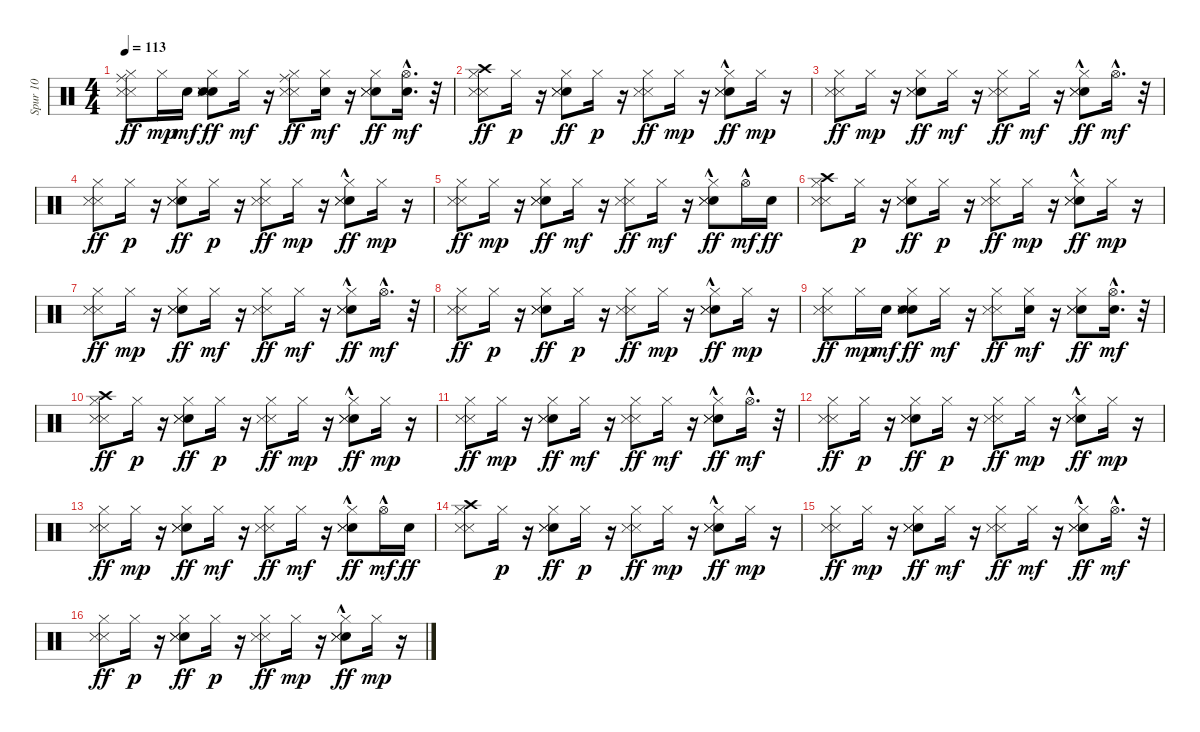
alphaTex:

\track ("Spur 10" "Spur 10") {instrument percussion}
\staff {score}
\articulation defaults
\ts (4 4)
\tempo 113
\clef neutral
\ks c
("Hi-Hat (closed)" "Ride (middle)" "Snare (side stick) 3" "Snare (side stick) 3").8{dy ff} "Hi-Hat (closed)".16{dy mp} "Metronome (bell)".16{dy mf} ("Hi-Hat (closed)" "Metronome (bell)" "Metronome (bell)" "Snare (side stick) 3" "Snare (side stick) 3").8{dy ff} "Hi-Hat (closed)".16{dy mf} r.16 ("Hi-Hat (closed)" "Ride (middle)" "Snare (side stick) 3" "Snare (side stick) 3").8{dy ff} ("Metronome (bell)" "Hi-Hat (closed)").16{dy mf} r.16 ("Metronome (bell)" "Snare (side stick) 3" "Snare (side stick) 3" "Hi-Hat (closed)").8{dy ff} ("Metronome (bell)" "Hi-Hat (open)"{hac}).16{d dy mf} r.32 |
("Crash high (hit)" "Hi-Hat (closed)" "Snare (side stick) 3" "Snare (side stick) 3").8{dy ff} "Hi-Hat (closed)".16{dy p} r.16 ("Hi-Hat (closed)" "Metronome (bell)" "Snare (side stick) 3" "Snare (side stick) 3").8{dy ff} "Hi-Hat (closed)".16{dy p} r.16 ("Hi-Hat (closed)" "Snare (side stick) 3" "Snare (side stick) 3").8{dy ff} "Hi-Hat (closed)".16{dy mp} r.16 ("Hi-Hat (closed)" "Metronome (bell)"{hac} "Snare (side stick) 3" "Snare (side stick) 3").8{dy ff} "Hi-Hat (closed)".16{dy mp} r.16 |
("Hi-Hat (closed)" "Snare (side stick) 3" "Snare (side stick) 3").8{dy ff} "Hi-Hat (closed)".16{dy mp} r.16 ("Hi-Hat (closed)" "Metronome (bell)" "Snare (side stick) 3" "Snare (side stick) 3").8{dy ff} "Hi-Hat (closed)".16{dy mf} r.16 ("Hi-Hat (closed)" "Snare (side stick) 3" "Snare (side stick) 3").8{dy ff} "Hi-Hat (closed)".16{dy mf} r.16 ("Metronome (bell)"{hac} "Snare (side stick) 3" "Snare (side stick) 3" "Hi-Hat (closed)").8{dy ff} "Hi-Hat (open)"{hac}.16{d dy mf} r.32 |
("Hi-Hat (closed)" "Snare (side stick) 3" "Snare (side stick) 3").8{dy ff} "Hi-Hat (closed)".16{dy p} r.16 ("Hi-Hat (closed)" "Metronome (bell)" "Snare (side stick) 3" "Snare (side stick) 3").8{dy ff} "Hi-Hat (closed)".16{dy p} r.16 ("Hi-Hat (closed)" "Snare (side stick) 3" "Snare (side stick) 3").8{dy ff} "Hi-Hat (closed)".16{dy mp} r.16 ("Hi-Hat (closed)" "Metronome (bell)"{hac} "Snare (side stick) 3" "Snare (side stick) 3").8{dy ff} "Hi-Hat (closed)".16{dy mp} r.16 |
("Hi-Hat (closed)" "Snare (side stick) 3" "Snare (side stick) 3").8{dy ff} "Hi-Hat (closed)".16{dy mp} r.16 ("Hi-Hat (closed)" "Metronome (bell)" "Snare (side stick) 3" "Snare (side stick) 3").8{dy ff} "Hi-Hat (closed)".16{dy mf} r.16 ("Hi-Hat (closed)" "Snare (side stick) 3" "Snare (side stick) 3").8{dy ff} "Hi-Hat (closed)".16{dy mf} r.16 ("Metronome (bell)"{hac} "Snare (side stick) 3" "Snare (side stick) 3" "Hi-Hat (closed)").8{dy ff} "Hi-Hat (open)"{hac}.16{dy mf} "Metronome (bell)".16{dy ff} |
("Hi-Hat (closed)" "Snare (side stick) 3" "Snare (side stick) 3" "Crash high (hit)").8 "Hi-Hat (closed)".16{dy p} r.16 ("Hi-Hat (closed)" "Metronome (bell)" "Snare (side stick) 3" "Snare (side stick) 3").8{dy ff} "Hi-Hat (closed)".16{dy p} r.16 ("Hi-Hat (closed)" "Snare (side stick) 3" "Snare (side stick) 3").8{dy ff} "Hi-Hat (closed)".16{dy mp} r.16 ("Hi-Hat (closed)" "Metronome (bell)"{hac} "Snare (side stick) 3" "Snare (side stick) 3").8{dy ff} "Hi-Hat (closed)".16{dy mp} r.16 |
("Hi-Hat (closed)" "Snare (side stick) 3" "Snare (side stick) 3").8{dy ff} "Hi-Hat (closed)".16{dy mp} r.16 ("Hi-Hat (closed)" "Metronome (bell)" "Snare (side stick) 3" "Snare (side stick) 3").8{dy ff} "Hi-Hat (closed)".16{dy mf} r.16 ("Hi-Hat (closed)" "Snare (side stick) 3" "Snare (side stick) 3").8{dy ff} "Hi-Hat (closed)".16{dy mf} r.16 ("Metronome (bell)"{hac} "Snare (side stick) 3" "Snare (side stick) 3" "Hi-Hat (closed)").8{dy ff} "Hi-Hat (open)"{hac}.16{d dy mf} r.32 |
("Hi-Hat (closed)" "Snare (side stick) 3" "Snare (side stick) 3").8{dy ff} "Hi-Hat (closed)".16{dy p} r.16 ("Hi-Hat (closed)" "Metronome (bell)" "Snare (side stick) 3" "Snare (side stick) 3").8{dy ff} "Hi-Hat (closed)".16{dy p} r.16 ("Hi-Hat (closed)" "Snare (side stick) 3" "Snare (side stick) 3").8{dy ff} "Hi-Hat (closed)".16{dy mp} r.16 ("Hi-Hat (closed)" "Metronome (bell)"{hac} "Snare (side stick) 3" "Snare (side stick) 3").8{dy ff} "Hi-Hat (closed)".16{dy mp} r.16 |
("Hi-Hat (closed)" "Snare (side stick) 3" "Snare (side stick) 3").8{dy ff} "Hi-Hat (closed)".16{dy mp} "Metronome (bell)".16{dy mf} ("Hi-Hat (closed)" "Metronome (bell)" "Metronome (bell)" "Snare (side stick) 3" "Snare (side stick) 3").8{dy ff} "Hi-Hat (closed)".16{dy mf} r.16 ("Hi-Hat (closed)" "Snare (side stick) 3" "Snare (side stick) 3").8{dy ff} ("Metronome (bell)" "Hi-Hat (closed)").16{dy mf} r.16 ("Metronome (bell)" "Snare (side stick) 3" "Snare (side stick) 3" "Hi-Hat (closed)").8{dy ff} ("Metronome (bell)" "Hi-Hat (open)"{hac}).16{d dy mf} r.32 |
("Crash high (hit)" "Hi-Hat (closed)" "Snare (side stick) 3" "Snare (side stick) 3").8{dy ff} "Hi-Hat (closed)".16{dy p} r.16 ("Hi-Hat (closed)" "Metronome (bell)" "Snare (side stick) 3" "Snare (side stick) 3").8{dy ff} "Hi-Hat (closed)".16{dy p} r.16 ("Hi-Hat (closed)" "Snare (side stick) 3" "Snare (side stick) 3").8{dy ff} "Hi-Hat (closed)".16{dy mp} r.16 ("Hi-Hat (closed)" "Metronome (bell)"{hac} "Snare (side stick) 3" "Snare (side stick) 3").8{dy ff} "Hi-Hat (closed)".16{dy mp} r.16 |
("Hi-Hat (closed)" "Snare (side stick) 3" "Snare (side stick) 3").8{dy ff} "Hi-Hat (closed)".16{dy mp} r.16 ("Hi-Hat (closed)" "Metronome (bell)" "Snare (side stick) 3" "Snare (side stick) 3").8{dy ff} "Hi-Hat (closed)".16{dy mf} r.16 ("Hi-Hat (closed)" "Snare (side stick) 3" "Snare (side stick) 3").8{dy ff} "Hi-Hat (closed)".16{dy mf} r.16 ("Metronome (bell)"{hac} "Snare (side stick) 3" "Snare (side stick) 3" "Hi-Hat (closed)").8{dy ff} "Hi-Hat (open)"{hac}.16{d dy mf} r.32 |
("Hi-Hat (closed)" "Snare (side stick) 3" "Snare (side stick) 3").8{dy ff} "Hi-Hat (closed)".16{dy p} r.16 ("Hi-Hat (closed)" "Metronome (bell)" "Snare (side stick) 3" "Snare (side stick) 3").8{dy ff} "Hi-Hat (closed)".16{dy p} r.16 ("Hi-Hat (closed)" "Snare (side stick) 3" "Snare (side stick) 3").8{dy ff} "Hi-Hat (closed)".16{dy mp} r.16 ("Hi-Hat (closed)" "Metronome (bell)"{hac} "Snare (side stick) 3" "Snare (side stick) 3").8{dy ff} "Hi-Hat (closed)".16{dy mp} r.16 |
("Hi-Hat (closed)" "Snare (side stick) 3" "Snare (side stick) 3").8{dy ff} "Hi-Hat (closed)".16{dy mp} r.16 ("Hi-Hat (closed)" "Metronome (bell)" "Snare (side stick) 3" "Snare (side stick) 3").8{dy ff} "Hi-Hat (closed)".16{dy mf} r.16 ("Hi-Hat (closed)" "Snare (side stick) 3" "Snare (side stick) 3").8{dy ff} "Hi-Hat (closed)".16{dy mf} r.16 ("Metronome (bell)"{hac} "Snare (side stick) 3" "Snare (side stick) 3" "Hi-Hat (closed)").8{dy ff} "Hi-Hat (open)"{hac}.16{dy mf} "Metronome (bell)".16{dy ff} |
("Hi-Hat (closed)" "Snare (side stick) 3" "Snare (side stick) 3" "Crash high (hit)").8 "Hi-Hat (closed)".16{dy p} r.16 ("Hi-Hat (closed)" "Metronome (bell)" "Snare (side stick) 3" "Snare (side stick) 3").8{dy ff} "Hi-Hat (closed)".16{dy p} r.16 ("Hi-Hat (closed)" "Snare (side stick) 3" "Snare (side stick) 3").8{dy ff} "Hi-Hat (closed)".16{dy mp} r.16 ("Hi-Hat (closed)" "Metronome (bell)"{hac} "Snare (side stick) 3" "Snare (side stick) 3").8{dy ff} "Hi-Hat (closed)".16{dy mp} r.16 |
("Hi-Hat (closed)" "Snare (side stick) 3" "Snare (side stick) 3").8{dy ff} "Hi-Hat (closed)".16{dy mp} r.16 ("Hi-Hat (closed)" "Metronome (bell)" "Snare (side stick) 3" "Snare (side stick) 3").8{dy ff} "Hi-Hat (closed)".16{dy mf} r.16 ("Hi-Hat (closed)" "Snare (side stick) 3" "Snare (side stick) 3").8{dy ff} "Hi-Hat (closed)".16{dy mf} r.16 ("Metronome (bell)"{hac} "Snare (side stick) 3" "Snare (side stick) 3" "Hi-Hat (closed)").8{dy ff} "Hi-Hat (open)"{hac}.16{d dy mf} r.32 |
("Hi-Hat (closed)" "Snare (side stick) 3" "Snare (side stick) 3").8{dy ff} "Hi-Hat (closed)".16{dy p} r.16 ("Hi-Hat (closed)" "Metronome (bell)" "Snare (side stick) 3" "Snare (side stick) 3").8{dy ff} "Hi-Hat (closed)".16{dy p} r.16 ("Hi-Hat (closed)" "Snare (side stick) 3" "Snare (side stick) 3").8{dy ff} "Hi-Hat (closed)".16{dy mp} r.16 ("Hi-Hat (closed)" "Metronome (bell)"{hac} "Snare (side stick) 3" "Snare (side stick) 3").8{dy ff} "Hi-Hat (closed)".16{dy mp} r.16
